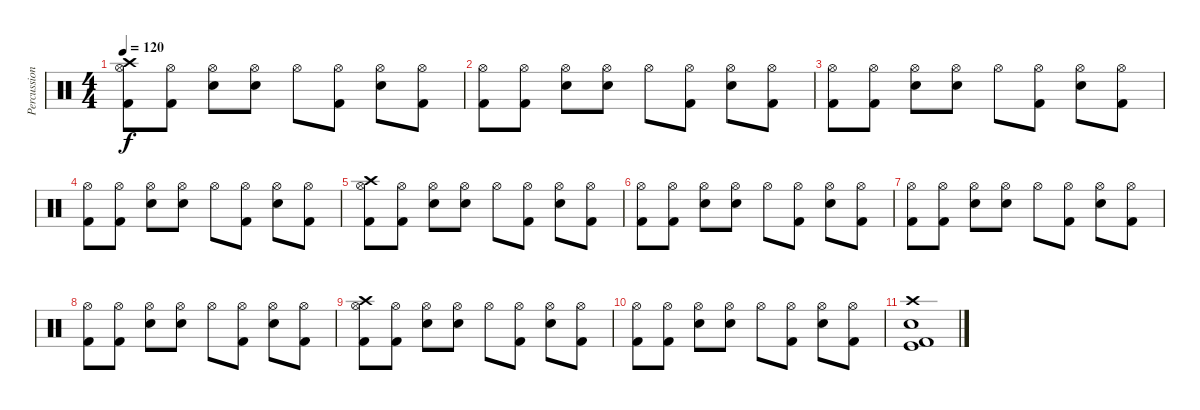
\track ("Percussion" "Percussion") {instrument percussion}
\staff {score}
\articulation defaults
\ts (4 4)
\tempo 120
\clef neutral
\ks c
("Kick (hit) 2" "Hi-Hat (open)" "Crash high (hit)").8{dy f} ("Kick (hit) 2" "Hi-Hat (open)").8 ("Electric Snare (hit)" "Hi-Hat (open)").8 ("Electric Snare (hit)" "Hi-Hat (open)").8 "Hi-Hat (open)".8 ("Kick (hit) 2" "Hi-Hat (open)").8 ("Electric Snare (hit)" "Hi-Hat (open)").8 ("Kick (hit) 2" "Hi-Hat (open)").8 |
("Kick (hit) 2" "Hi-Hat (open)").8 ("Kick (hit) 2" "Hi-Hat (open)").8 ("Electric Snare (hit)" "Hi-Hat (open)").8 ("Electric Snare (hit)" "Hi-Hat (open)").8 "Hi-Hat (open)".8 ("Kick (hit) 2" "Hi-Hat (open)").8 ("Electric Snare (hit)" "Hi-Hat (open)").8 ("Kick (hit) 2" "Hi-Hat (open)").8 |
("Kick (hit) 2" "Hi-Hat (open)").8 ("Kick (hit) 2" "Hi-Hat (open)").8 ("Electric Snare (hit)" "Hi-Hat (open)").8 ("Electric Snare (hit)" "Hi-Hat (open)").8 "Hi-Hat (open)".8 ("Kick (hit) 2" "Hi-Hat (open)").8 ("Electric Snare (hit)" "Hi-Hat (open)").8 ("Kick (hit) 2" "Hi-Hat (open)").8 |
("Kick (hit) 2" "Hi-Hat (open)").8 ("Kick (hit) 2" "Hi-Hat (open)").8 ("Electric Snare (hit)" "Hi-Hat (open)").8 ("Electric Snare (hit)" "Hi-Hat (open)").8 "Hi-Hat (open)".8 ("Kick (hit) 2" "Hi-Hat (open)").8 ("Electric Snare (hit)" "Hi-Hat (open)").8 ("Kick (hit) 2" "Hi-Hat (open)").8 |
("Kick (hit) 2" "Hi-Hat (open)" "Crash high (hit)").8 ("Kick (hit) 2" "Hi-Hat (open)").8 ("Electric Snare (hit)" "Hi-Hat (open)").8 ("Electric Snare (hit)" "Hi-Hat (open)").8 "Hi-Hat (open)".8 ("Kick (hit) 2" "Hi-Hat (open)").8 ("Electric Snare (hit)" "Hi-Hat (open)").8 ("Kick (hit) 2" "Hi-Hat (open)").8 |
("Kick (hit) 2" "Hi-Hat (open)").8 ("Kick (hit) 2" "Hi-Hat (open)").8 ("Electric Snare (hit)" "Hi-Hat (open)").8 ("Electric Snare (hit)" "Hi-Hat (open)").8 "Hi-Hat (open)".8 ("Kick (hit) 2" "Hi-Hat (open)").8 ("Electric Snare (hit)" "Hi-Hat (open)").8 ("Kick (hit) 2" "Hi-Hat (open)").8 |
("Kick (hit) 2" "Hi-Hat (open)").8 ("Kick (hit) 2" "Hi-Hat (open)").8 ("Electric Snare (hit)" "Hi-Hat (open)").8 ("Electric Snare (hit)" "Hi-Hat (open)").8 "Hi-Hat (open)".8 ("Kick (hit) 2" "Hi-Hat (open)").8 ("Electric Snare (hit)" "Hi-Hat (open)").8 ("Kick (hit) 2" "Hi-Hat (open)").8 |
("Kick (hit) 2" "Hi-Hat (open)").8 ("Kick (hit) 2" "Hi-Hat (open)").8 ("Electric Snare (hit)" "Hi-Hat (open)").8 ("Electric Snare (hit)" "Hi-Hat (open)").8 "Hi-Hat (open)".8 ("Kick (hit) 2" "Hi-Hat (open)").8 ("Electric Snare (hit)" "Hi-Hat (open)").8 ("Kick (hit) 2" "Hi-Hat (open)").8 |
("Kick (hit) 2" "Hi-Hat (open)" "Crash high (hit)").8 ("Kick (hit) 2" "Hi-Hat (open)").8 ("Electric Snare (hit)" "Hi-Hat (open)").8 ("Electric Snare (hit)" "Hi-Hat (open)").8 "Hi-Hat (open)".8 ("Kick (hit) 2" "Hi-Hat (open)").8 ("Electric Snare (hit)" "Hi-Hat (open)").8 ("Kick (hit) 2" "Hi-Hat (open)").8 |
("Kick (hit) 2" "Hi-Hat (open)").8 ("Kick (hit) 2" "Hi-Hat (open)").8 ("Electric Snare (hit)" "Hi-Hat (open)").8 ("Electric Snare (hit)" "Hi-Hat (open)").8 "Hi-Hat (open)".8 ("Kick (hit) 2" "Hi-Hat (open)").8 ("Electric Snare (hit)" "Hi-Hat (open)").8 ("Kick (hit) 2" "Hi-Hat (open)").8 |
("Kick (hit)" "Kick (hit) 2" "Electric Snare (hit)" "Crash high (hit)").1
